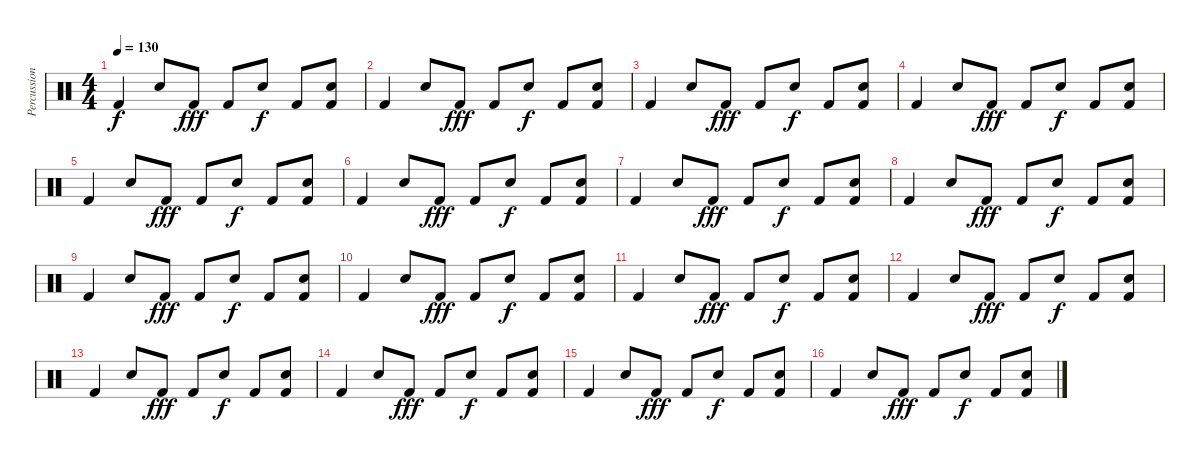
\track ("Percussion" "Percussion") {instrument percussion}
\staff {score}
\articulation defaults
\ts (4 4)
\tempo 130
\clef neutral
\ks c "Kick (hit) 2".4{dy f} "Electric Snare (hit)".8 "Kick (hit) 2".8{dy fff} "Kick (hit) 2".8 "Electric Snare (hit)".8{dy f} "Kick (hit) 2".8
("Electric Snare (hit)" "Kick (hit) 2").8 |
"Kick (hit) 2".4 "Electric Snare (hit)".8 "Kick (hit) 2".8{dy fff} "Kick (hit) 2".8 "Electric Snare (hit)".8{dy f} "Kick (hit) 2".8 ("Electric Snare (hit)" "Kick (hit) 2").8 |
"Kick (hit) 2".4 "Electric Snare (hit)".8 "Kick (hit) 2".8{dy fff} "Kick (hit) 2".8 "Electric Snare (hit)".8{dy f} "Kick (hit) 2".8 ("Electric Snare (hit)" "Kick (hit) 2").8 |
"Kick (hit) 2".4 "Electric Snare (hit)".8 "Kick (hit) 2".8{dy fff} "Kick (hit) 2".8 "Electric Snare (hit)".8{dy f} "Kick (hit) 2".8 ("Electric Snare (hit)" "Kick (hit) 2").8 |
"Kick (hit) 2".4 "Electric Snare (hit)".8 "Kick (hit) 2".8{dy fff} "Kick (hit) 2".8 "Electric Snare (hit)".8{dy f} "Kick (hit) 2".8 ("Electric Snare (hit)" "Kick (hit) 2").8 |
"Kick (hit) 2".4 "Electric Snare (hit)".8 "Kick (hit) 2".8{dy fff} "Kick (hit) 2".8 "Electric Snare (hit)".8{dy f} "Kick (hit) 2".8 ("Electric Snare (hit)" "Kick (hit) 2").8 |
"Kick (hit) 2".4 "Electric Snare (hit)".8 "Kick (hit) 2".8{dy fff} "Kick (hit) 2".8 "Electric Snare (hit)".8{dy f} "Kick (hit) 2".8 ("Electric Snare (hit)" "Kick (hit) 2").8 |
"Kick (hit) 2".4 "Electric Snare (hit)".8 "Kick (hit) 2".8{dy fff} "Kick (hit) 2".8 "Electric Snare (hit)".8{dy f} "Kick (hit) 2".8 ("Electric Snare (hit)" "Kick (hit) 2").8 |
"Kick (hit) 2".4 "Electric Snare (hit)".8 "Kick (hit) 2".8{dy fff} "Kick (hit) 2".8 "Electric Snare (hit)".8{dy f} "Kick (hit) 2".8 ("Electric Snare (hit)" "Kick (hit) 2").8 |
"Kick (hit) 2".4 "Electric Snare (hit)".8 "Kick (hit) 2".8{dy fff} "Kick (hit) 2".8 "Electric Snare (hit)".8{dy f} "Kick (hit) 2".8 ("Electric Snare (hit)" "Kick (hit) 2").8 |
"Kick (hit) 2".4 "Electric Snare (hit)".8 "Kick (hit) 2".8{dy fff} "Kick (hit) 2".8 "Electric Snare (hit)".8{dy f} "Kick (hit) 2".8 ("Electric Snare (hit)" "Kick (hit) 2").8 |
"Kick (hit) 2".4 "Electric Snare (hit)".8 "Kick (hit) 2".8{dy fff} "Kick (hit) 2".8 "Electric Snare (hit)".8{dy f} "Kick (hit) 2".8 ("Electric Snare (hit)" "Kick (hit) 2").8 |
"Kick (hit) 2".4 "Electric Snare (hit)".8 "Kick (hit) 2".8{dy fff} "Kick (hit) 2".8 "Electric Snare (hit)".8{dy f} "Kick (hit) 2".8 ("Electric Snare (hit)" "Kick (hit) 2").8 |
"Kick (hit) 2".4 "Electric Snare (hit)".8 "Kick (hit) 2".8{dy fff} "Kick (hit) 2".8 "Electric Snare (hit)".8{dy f} "Kick (hit) 2".8 ("Electric Snare (hit)" "Kick (hit) 2").8 |
"Kick (hit) 2".4 "Electric Snare (hit)".8 "Kick (hit) 2".8{dy fff} "Kick (hit) 2".8 "Electric Snare (hit)".8{dy f} "Kick (hit) 2".8 ("Electric Snare (hit)" "Kick (hit) 2").8 |
"Kick (hit) 2".4 "Electric Snare (hit)".8 "Kick (hit) 2".8{dy fff} "Kick (hit) 2".8 "Electric Snare (hit)".8{dy f} "Kick (hit) 2".8 ("Electric Snare (hit)" "Kick (hit) 2").8
